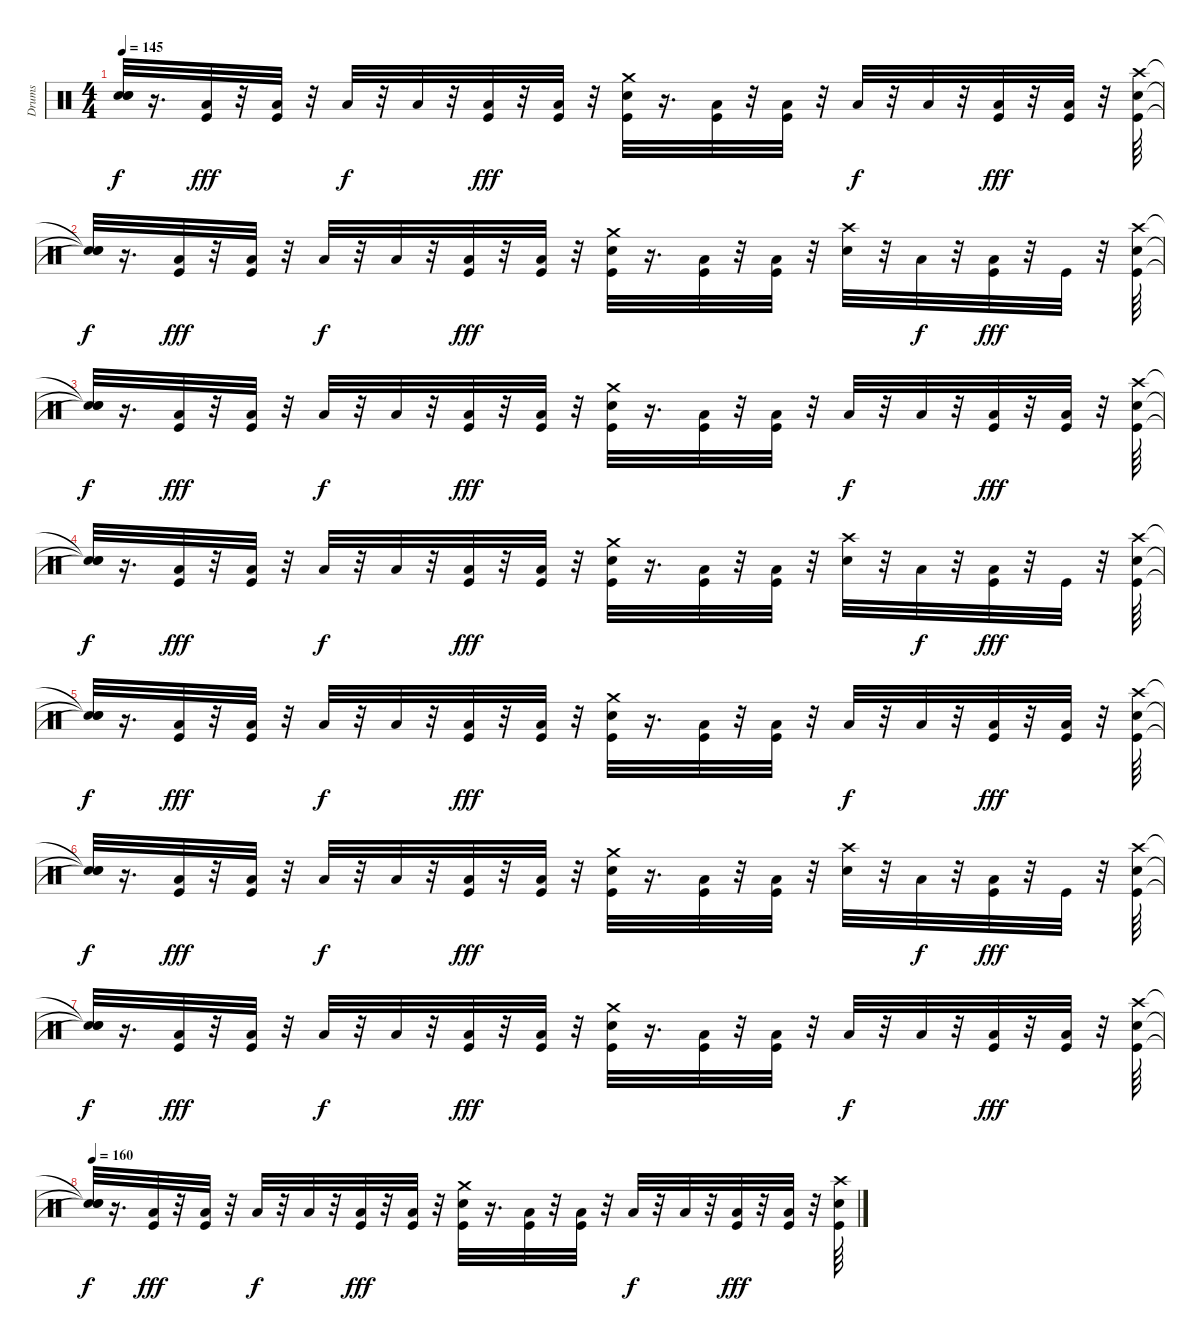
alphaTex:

\track ("Drums" "Drums") {instrument percussion}
\staff {score}
\articulation defaults
\ts (4 4)
\tempo 145
\clef neutral
\ks c
("Snare (hit)"{t} "Snare (hit)"{t} "Snare (hit)"{t}).32{dy f} r.16{d} ("Kick (hit)" "Low Floor Tom (hit)").32{dy fff} r.32 ("Kick (hit)" "Low Tom (hit)").32 r.32 "Low Tom (hit)".32{dy f} r.32 "Low Floor Tom (hit)".32 r.32 ("Kick (hit)" "Low Floor Tom (hit)").32{dy fff} r.32 ("Kick (hit)" "Low Floor Tom (hit)").32 r.32 ("Kick (hit)" "Electric Snare (hit)" "Crash medium (hit)").32 r.16{d} ("Kick (hit)" "Low Tom (hit)").32 r.32 ("Kick (hit)" "Low Floor Tom (hit)").32 r.32 "Low Tom (hit)".32{dy f} r.32 "Low Floor Tom (hit)".32 r.32 ("Kick (hit)" "Low Floor Tom (hit)").32{dy fff} r.32 ("Kick (hit)" "Low Floor Tom (hit)").32 r.32 ("Kick (hit)" "Electric Snare (hit)" "Crash high (hit)").64 |
("Snare (hit)"{t} "Snare (hit)"{t} "Snare (hit)"{t}).32{dy f} r.16{d} ("Kick (hit)" "Low Floor Tom (hit)").32{dy fff} r.32 ("Kick (hit)" "Low Tom (hit)").32 r.32 "Low Tom (hit)".32{dy f} r.32 "Low Floor Tom (hit)".32 r.32 ("Kick (hit)" "Low Floor Tom (hit)").32{dy fff} r.32 ("Kick (hit)" "Low Floor Tom (hit)").32 r.32 ("Crash medium (hit)" "Kick (hit)" "Electric Snare (hit)").32 r.16{d} ("Kick (hit)" "Low Tom (hit)").32 r.32 ("Kick (hit)" "Low Floor Tom (hit)").32 r.32 ("Electric Snare (hit)" "Crash high (hit)").32 r.32 "Low Floor Tom (hit)".32{dy f} r.32 ("Kick (hit)" "Low Floor Tom (hit)").32{dy fff} r.32 "Kick (hit)".32 r.32 ("Kick (hit)" "Electric Snare (hit)" "Crash high (hit)").64 |
("Snare (hit)"{t} "Snare (hit)"{t} "Snare (hit)"{t}).32{dy f} r.16{d} ("Kick (hit)" "Low Floor Tom (hit)").32{dy fff} r.32 ("Kick (hit)" "Low Tom (hit)").32 r.32 "Low Tom (hit)".32{dy f} r.32 "Low Floor Tom (hit)".32 r.32 ("Kick (hit)" "Low Floor Tom (hit)").32{dy fff} r.32 ("Kick (hit)" "Low Floor Tom (hit)").32 r.32 ("Kick (hit)" "Electric Snare (hit)" "Crash medium (hit)").32 r.16{d} ("Kick (hit)" "Low Tom (hit)").32 r.32 ("Kick (hit)" "Low Floor Tom (hit)").32 r.32 "Low Tom (hit)".32{dy f} r.32 "Low Floor Tom (hit)".32 r.32 ("Kick (hit)" "Low Floor Tom (hit)").32{dy fff} r.32 ("Kick (hit)" "Low Floor Tom (hit)").32 r.32 ("Kick (hit)" "Electric Snare (hit)" "Crash high (hit)").64 |
("Snare (hit)"{t} "Snare (hit)"{t} "Snare (hit)"{t}).32{dy f} r.16{d} ("Kick (hit)" "Low Floor Tom (hit)").32{dy fff} r.32 ("Kick (hit)" "Low Tom (hit)").32 r.32 "Low Tom (hit)".32{dy f} r.32 "Low Floor Tom (hit)".32 r.32 ("Kick (hit)" "Low Floor Tom (hit)").32{dy fff} r.32 ("Kick (hit)" "Low Floor Tom (hit)").32 r.32 ("Crash medium (hit)" "Kick (hit)" "Electric Snare (hit)").32 r.16{d} ("Kick (hit)" "Low Tom (hit)").32 r.32 ("Kick (hit)" "Low Floor Tom (hit)").32 r.32 ("Electric Snare (hit)" "Crash high (hit)").32 r.32 "Low Floor Tom (hit)".32{dy f} r.32 ("Kick (hit)" "Low Floor Tom (hit)").32{dy fff} r.32 "Kick (hit)".32 r.32 ("Kick (hit)" "Electric Snare (hit)" "Crash high (hit)").64 |
("Snare (hit)"{t} "Snare (hit)"{t} "Snare (hit)"{t}).32{dy f} r.16{d} ("Kick (hit)" "Low Floor Tom (hit)").32{dy fff} r.32 ("Kick (hit)" "Low Tom (hit)").32 r.32 "Low Tom (hit)".32{dy f} r.32 "Low Floor Tom (hit)".32 r.32 ("Kick (hit)" "Low Floor Tom (hit)").32{dy fff} r.32 ("Kick (hit)" "Low Floor Tom (hit)").32 r.32 ("Kick (hit)" "Electric Snare (hit)" "Crash medium (hit)").32 r.16{d} ("Kick (hit)" "Low Tom (hit)").32 r.32 ("Kick (hit)" "Low Floor Tom (hit)").32 r.32 "Low Tom (hit)".32{dy f} r.32 "Low Floor Tom (hit)".32 r.32 ("Kick (hit)" "Low Floor Tom (hit)").32{dy fff} r.32 ("Kick (hit)" "Low Floor Tom (hit)").32 r.32 ("Kick (hit)" "Electric Snare (hit)" "Crash high (hit)").64 |
("Snare (hit)"{t} "Snare (hit)"{t} "Snare (hit)"{t}).32{dy f} r.16{d} ("Kick (hit)" "Low Floor Tom (hit)").32{dy fff} r.32 ("Kick (hit)" "Low Tom (hit)").32 r.32 "Low Tom (hit)".32{dy f} r.32 "Low Floor Tom (hit)".32 r.32 ("Kick (hit)" "Low Floor Tom (hit)").32{dy fff} r.32 ("Kick (hit)" "Low Floor Tom (hit)").32 r.32 ("Crash medium (hit)" "Kick (hit)" "Electric Snare (hit)").32 r.16{d} ("Kick (hit)" "Low Tom (hit)").32 r.32 ("Kick (hit)" "Low Floor Tom (hit)").32 r.32 ("Electric Snare (hit)" "Crash high (hit)").32 r.32 "Low Floor Tom (hit)".32{dy f} r.32 ("Kick (hit)" "Low Floor Tom (hit)").32{dy fff} r.32 "Kick (hit)".32 r.32 ("Kick (hit)" "Electric Snare (hit)" "Crash high (hit)").64 |
("Snare (hit)"{t} "Snare (hit)"{t} "Snare (hit)"{t}).32{dy f} r.16{d} ("Kick (hit)" "Low Floor Tom (hit)").32{dy fff} r.32 ("Kick (hit)" "Low Tom (hit)").32 r.32 "Low Tom (hit)".32{dy f} r.32 "Low Floor Tom (hit)".32 r.32 ("Kick (hit)" "Low Floor Tom (hit)").32{dy fff} r.32 ("Kick (hit)" "Low Floor Tom (hit)").32 r.32 ("Kick (hit)" "Electric Snare (hit)" "Crash medium (hit)").32 r.16{d} ("Kick (hit)" "Low Tom (hit)").32 r.32 ("Kick (hit)" "Low Floor Tom (hit)").32 r.32 "Low Tom (hit)".32{dy f} r.32 "Low Floor Tom (hit)".32 r.32 ("Kick (hit)" "Low Floor Tom (hit)").32{dy fff} r.32 ("Kick (hit)" "Low Floor Tom (hit)").32 r.32 ("Kick (hit)" "Electric Snare (hit)" "Crash high (hit)").64 |
\tempo 160
("Snare (hit)"{t} "Snare (hit)"{t} "Snare (hit)"{t}).32{dy f} r.16{d} ("Kick (hit)" "Low Floor Tom (hit)").32{dy fff} r.32 ("Kick (hit)" "Low Tom (hit)").32 r.32 "Low Tom (hit)".32{dy f} r.32 "Low Floor Tom (hit)".32 r.32 ("Kick (hit)" "Low Floor Tom (hit)").32{dy fff} r.32 ("Kick (hit)" "Low Floor Tom (hit)").32 r.32 ("Kick (hit)" "Electric Snare (hit)" "Crash medium (hit)").32 r.16{d} ("Kick (hit)" "Low Tom (hit)").32 r.32 ("Kick (hit)" "Low Floor Tom (hit)").32 r.32 "Low Tom (hit)".32{dy f} r.32 "Low Floor Tom (hit)".32 r.32 ("Kick (hit)" "Low Floor Tom (hit)").32{dy fff} r.32 ("Kick (hit)" "Low Floor Tom (hit)").32 r.32 ("Kick (hit)" "Electric Snare (hit)" "Crash high (hit)").64
